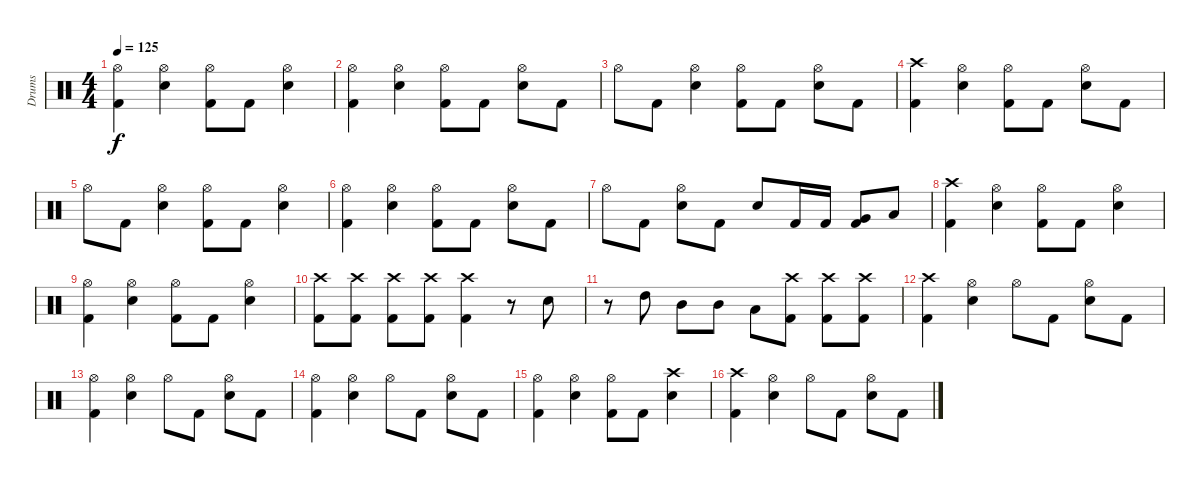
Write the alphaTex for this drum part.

\track ("Drums" "Drums") {instrument percussion}
\staff {score}
\articulation defaults
\ts (4 4)
\tempo 125
\clef neutral
\ks c
("Hi-Hat (open)" "Kick (hit) 2").4{dy f} ("Hi-Hat (open)" "Electric Snare (hit)").4 ("Hi-Hat (open)" "Kick (hit) 2").8 "Kick (hit) 2".8 ("Hi-Hat (open)" "Electric Snare (hit)").4 |
("Hi-Hat (open)" "Kick (hit) 2").4 ("Hi-Hat (open)" "Electric Snare (hit)").4 ("Hi-Hat (open)" "Kick (hit) 2").8 "Kick (hit) 2".8 ("Hi-Hat (open)" "Electric Snare (hit)").8 "Kick (hit) 2".8 |
"Hi-Hat (open)".8 "Kick (hit) 2".8 ("Hi-Hat (open)" "Electric Snare (hit)").4 ("Hi-Hat (open)" "Kick (hit) 2").8 "Kick (hit) 2".8 ("Hi-Hat (open)" "Electric Snare (hit)").8 "Kick (hit) 2".8 |
("Crash high (hit)" "Kick (hit) 2").4 ("Hi-Hat (open)" "Electric Snare (hit)").4 ("Hi-Hat (open)" "Kick (hit) 2").8 "Kick (hit) 2".8 ("Hi-Hat (open)" "Electric Snare (hit)").8 "Kick (hit) 2".8 |
"Hi-Hat (open)".8 "Kick (hit) 2".8 ("Hi-Hat (open)" "Electric Snare (hit)").4 ("Hi-Hat (open)" "Kick (hit) 2").8 "Kick (hit) 2".8 ("Hi-Hat (open)" "Electric Snare (hit)").4 |
("Hi-Hat (open)" "Kick (hit) 2").4 ("Hi-Hat (open)" "Electric Snare (hit)").4 ("Hi-Hat (open)" "Kick (hit) 2").8 "Kick (hit) 2".8 ("Hi-Hat (open)" "Electric Snare (hit)").8 "Kick (hit) 2".8 |
"Hi-Hat (open)".8 "Kick (hit) 2".8 ("Hi-Hat (open)" "Electric Snare (hit)").8 "Kick (hit) 2".8 "Electric Snare (hit)".8 "Kick (hit) 2".16 "Kick (hit) 2".16 ("Very Low Tom (hit)" "Kick (hit) 2").8 "Low Floor Tom (hit)".8 |
("Crash high (hit)" "Kick (hit) 2").4 ("Hi-Hat (open)" "Electric Snare (hit)").4 ("Hi-Hat (open)" "Kick (hit) 2").8 "Kick (hit) 2".8 ("Hi-Hat (open)" "Electric Snare (hit)").4 |
("Hi-Hat (open)" "Kick (hit) 2").4 ("Hi-Hat (open)" "Electric Snare (hit)").4 ("Hi-Hat (open)" "Kick (hit) 2").8 "Kick (hit) 2".8 ("Hi-Hat (open)" "Electric Snare (hit)").4 |
("Crash high (hit)" "Kick (hit) 2").8 ("Crash high (hit)" "Kick (hit) 2").8 ("Crash high (hit)" "Kick (hit) 2").8 ("Crash high (hit)" "Kick (hit) 2").8 ("Crash high (hit)" "Kick (hit) 2").4 r.8 "Electric Snare (hit)".8 |
r.8 "High Tom (hit)".8 "Mid Tom (hit)".8 "Mid Tom (hit)".8 "Low Tom (hit)".8 ("Crash high (hit)" "Kick (hit) 2").8 ("Crash high (hit)" "Kick (hit) 2").8 ("Crash high (hit)" "Kick (hit) 2").8 |
("Crash high (hit)" "Kick (hit) 2").4 ("Hi-Hat (open)" "Electric Snare (hit)").4 "Hi-Hat (open)".8 "Kick (hit) 2".8 ("Hi-Hat (open)" "Electric Snare (hit)").8 "Kick (hit) 2".8 |
("Hi-Hat (open)" "Kick (hit) 2").4 ("Hi-Hat (open)" "Electric Snare (hit)").4 "Hi-Hat (open)".8 "Kick (hit) 2".8 ("Hi-Hat (open)" "Electric Snare (hit)").8 "Kick (hit) 2".8 |
("Hi-Hat (open)" "Kick (hit) 2").4 ("Hi-Hat (open)" "Electric Snare (hit)").4 "Hi-Hat (open)".8 "Kick (hit) 2".8 ("Hi-Hat (open)" "Electric Snare (hit)").8 "Kick (hit) 2".8 |
("Hi-Hat (open)" "Kick (hit) 2").4 ("Hi-Hat (open)" "Electric Snare (hit)").4 ("Hi-Hat (open)" "Kick (hit) 2").8 "Kick (hit) 2".8 ("Crash high (hit)" "Electric Snare (hit)").4 |
("Crash high (hit)" "Kick (hit) 2").4 ("Hi-Hat (open)" "Electric Snare (hit)").4 "Hi-Hat (open)".8 "Kick (hit) 2".8 ("Hi-Hat (open)" "Electric Snare (hit)").8 "Kick (hit) 2".8
